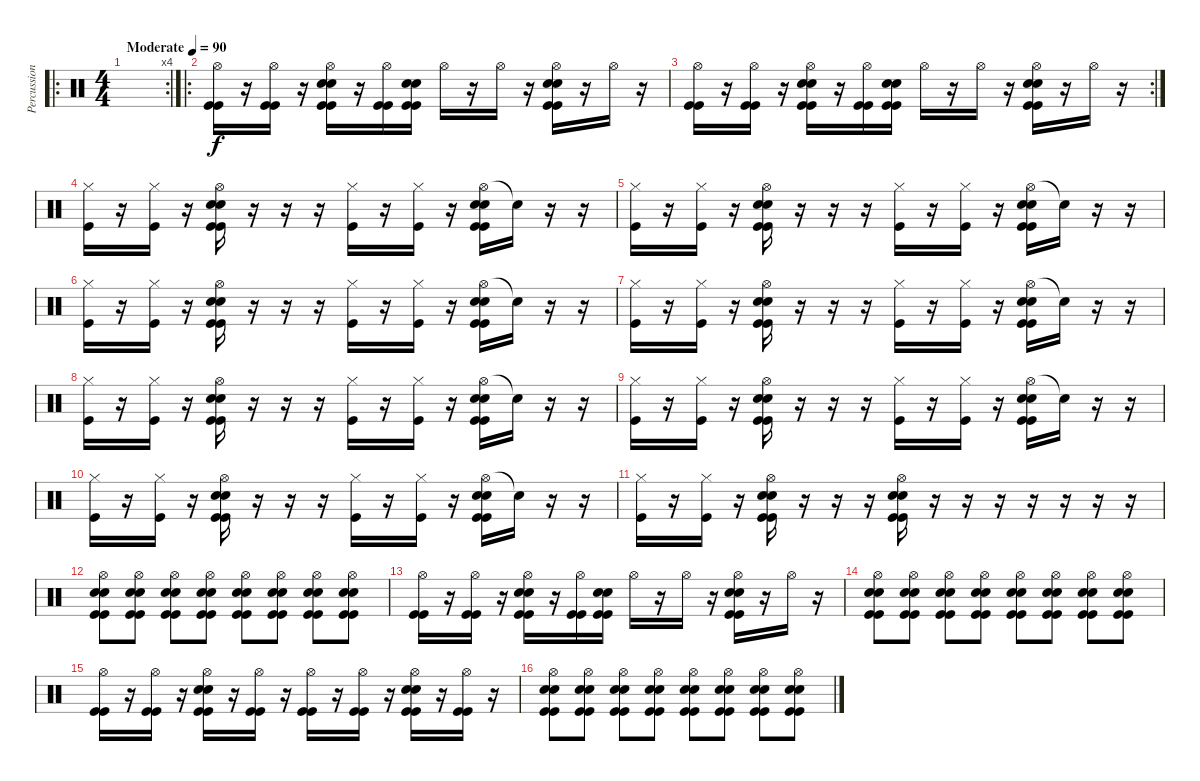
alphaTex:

\track ("Percussion" "Percussion") {instrument percussion}
\staff {score}
\articulation defaults
\ro
\rc 4
\ts (4 4)
\tempo (90 "Moderate")
\clef neutral
\ks c
|
\ro
("Hi-Hat (open)" "Kick (hit)" "Kick (hit)").16 r.16 ("Hi-Hat (open)" "Kick (hit)" "Kick (hit)").16 r.16 ("Hi-Hat (open)" "Kick (hit)" "Kick (hit)" "Electric Snare (hit)" "Electric Snare (hit)").16 r.16 ("Hi-Hat (open)" "Kick (hit)" "Kick (hit)").16 ("Kick (hit)" "Kick (hit)" "Electric Snare (hit)" "Electric Snare (hit)").16 "Hi-Hat (open)".16 r.16 "Hi-Hat (open)".16 r.16 ("Hi-Hat (open)" "Kick (hit)" "Kick (hit)" "Electric Snare (hit)" "Electric Snare (hit)").16 r.16 "Hi-Hat (open)".16 r.16 |
\rc 2
("Hi-Hat (open)" "Kick (hit)" "Kick (hit)").16 r.16 ("Hi-Hat (open)" "Kick (hit)" "Kick (hit)").16 r.16 ("Hi-Hat (open)" "Kick (hit)" "Kick (hit)" "Electric Snare (hit)" "Electric Snare (hit)").16 r.16 ("Hi-Hat (open)" "Kick (hit)" "Kick (hit)").16 ("Kick (hit)" "Kick (hit)" "Electric Snare (hit)" "Electric Snare (hit)").16 "Hi-Hat (open)".16 r.16 "Hi-Hat (open)".16 r.16 ("Hi-Hat (open)" "Kick (hit)" "Kick (hit)" "Electric Snare (hit)" "Electric Snare (hit)").16 r.16 "Hi-Hat (open)".16 r.16 |
("Hi-Hat (closed)" "Kick (hit)").16 r.16 ("Hi-Hat (closed)" "Kick (hit)").16 r.16 ("Hi-Hat (open)" "Kick (hit)" "Kick (hit)" "Electric Snare (hit)" "Electric Snare (hit)").16 r.16 r.16 r.16 ("Hi-Hat (closed)" "Kick (hit)").16 r.16 ("Hi-Hat (closed)" "Kick (hit)").16 r.16 ("Hi-Hat (open)" "Kick (hit)" "Kick (hit)" "Electric Snare (hit)" "Electric Snare (hit)").16 "Snare (hit)"{t}.16 r.16 r.16 |
("Hi-Hat (closed)" "Kick (hit)").16 r.16 ("Hi-Hat (closed)" "Kick (hit)").16 r.16 ("Hi-Hat (open)" "Kick (hit)" "Kick (hit)" "Electric Snare (hit)" "Electric Snare (hit)").16 r.16 r.16 r.16 ("Hi-Hat (closed)" "Kick (hit)").16 r.16 ("Hi-Hat (closed)" "Kick (hit)").16 r.16 ("Hi-Hat (open)" "Kick (hit)" "Kick (hit)" "Electric Snare (hit)" "Electric Snare (hit)").16 "Snare (hit)"{t}.16 r.16 r.16 |
("Hi-Hat (closed)" "Kick (hit)").16 r.16 ("Hi-Hat (closed)" "Kick (hit)").16 r.16 ("Hi-Hat (open)" "Kick (hit)" "Kick (hit)" "Electric Snare (hit)" "Electric Snare (hit)").16 r.16 r.16 r.16 ("Hi-Hat (closed)" "Kick (hit)").16 r.16 ("Hi-Hat (closed)" "Kick (hit)").16 r.16 ("Hi-Hat (open)" "Kick (hit)" "Kick (hit)" "Electric Snare (hit)" "Electric Snare (hit)").16 "Snare (hit)"{t}.16 r.16 r.16 |
("Hi-Hat (closed)" "Kick (hit)").16 r.16 ("Hi-Hat (closed)" "Kick (hit)").16 r.16 ("Hi-Hat (open)" "Kick (hit)" "Kick (hit)" "Electric Snare (hit)" "Electric Snare (hit)").16 r.16 r.16 r.16 ("Hi-Hat (closed)" "Kick (hit)").16 r.16 ("Hi-Hat (closed)" "Kick (hit)").16 r.16 ("Hi-Hat (open)" "Kick (hit)" "Kick (hit)" "Electric Snare (hit)" "Electric Snare (hit)").16 "Snare (hit)"{t}.16 r.16 r.16 |
("Hi-Hat (closed)" "Kick (hit)").16 r.16 ("Hi-Hat (closed)" "Kick (hit)").16 r.16 ("Hi-Hat (open)" "Kick (hit)" "Kick (hit)" "Electric Snare (hit)" "Electric Snare (hit)").16 r.16 r.16 r.16 ("Hi-Hat (closed)" "Kick (hit)").16 r.16 ("Hi-Hat (closed)" "Kick (hit)").16 r.16 ("Hi-Hat (open)" "Kick (hit)" "Kick (hit)" "Electric Snare (hit)" "Electric Snare (hit)").16 "Snare (hit)"{t}.16 r.16 r.16 |
("Hi-Hat (closed)" "Kick (hit)").16 r.16 ("Hi-Hat (closed)" "Kick (hit)").16 r.16 ("Hi-Hat (open)" "Kick (hit)" "Kick (hit)" "Electric Snare (hit)" "Electric Snare (hit)").16 r.16 r.16 r.16 ("Hi-Hat (closed)" "Kick (hit)").16 r.16 ("Hi-Hat (closed)" "Kick (hit)").16 r.16 ("Hi-Hat (open)" "Kick (hit)" "Kick (hit)" "Electric Snare (hit)" "Electric Snare (hit)").16 "Snare (hit)"{t}.16 r.16 r.16 |
("Hi-Hat (closed)" "Kick (hit)").16 r.16 ("Hi-Hat (closed)" "Kick (hit)").16 r.16 ("Hi-Hat (open)" "Kick (hit)" "Kick (hit)" "Electric Snare (hit)" "Electric Snare (hit)").16 r.16 r.16 r.16 ("Hi-Hat (closed)" "Kick (hit)").16 r.16 ("Hi-Hat (closed)" "Kick (hit)").16 r.16 ("Hi-Hat (open)" "Kick (hit)" "Kick (hit)" "Electric Snare (hit)" "Electric Snare (hit)").16 "Snare (hit)"{t}.16 r.16 r.16 |
("Hi-Hat (closed)" "Kick (hit)").16 r.16 ("Hi-Hat (closed)" "Kick (hit)").16 r.16 ("Hi-Hat (open)" "Kick (hit)" "Kick (hit)" "Electric Snare (hit)" "Electric Snare (hit)").16 r.16 r.16 r.16 ("Hi-Hat (open)" "Kick (hit)" "Kick (hit)" "Electric Snare (hit)" "Electric Snare (hit)").16 r.16 r.16 r.16 r.16 r.16 r.16 r.16 |
("Hi-Hat (open)" "Kick (hit)" "Kick (hit)" "Electric Snare (hit)" "Electric Snare (hit)").8 ("Hi-Hat (open)" "Kick (hit)" "Kick (hit)" "Electric Snare (hit)" "Electric Snare (hit)").8 ("Hi-Hat (open)" "Kick (hit)" "Kick (hit)" "Electric Snare (hit)" "Electric Snare (hit)").8 ("Hi-Hat (open)" "Kick (hit)" "Kick (hit)" "Electric Snare (hit)" "Electric Snare (hit)").8 ("Hi-Hat (open)" "Kick (hit)" "Kick (hit)" "Electric Snare (hit)" "Electric Snare (hit)").8 ("Hi-Hat (open)" "Kick (hit)" "Kick (hit)" "Electric Snare (hit)" "Electric Snare (hit)").8 ("Hi-Hat (open)" "Kick (hit)" "Kick (hit)" "Electric Snare (hit)" "Electric Snare (hit)").8 ("Hi-Hat (open)" "Kick (hit)" "Kick (hit)" "Electric Snare (hit)" "Electric Snare (hit)").8 |
("Hi-Hat (open)" "Kick (hit)" "Kick (hit)").16 r.16 ("Hi-Hat (open)" "Kick (hit)" "Kick (hit)").16 r.16 ("Hi-Hat (open)" "Kick (hit)" "Kick (hit)" "Electric Snare (hit)" "Electric Snare (hit)").16 r.16 ("Hi-Hat (open)" "Kick (hit)" "Kick (hit)").16 ("Kick (hit)" "Kick (hit)" "Electric Snare (hit)" "Electric Snare (hit)").16 "Hi-Hat (open)".16 r.16 "Hi-Hat (open)".16 r.16 ("Hi-Hat (open)" "Kick (hit)" "Kick (hit)" "Electric Snare (hit)" "Electric Snare (hit)").16 r.16 "Hi-Hat (open)".16 r.16 |
("Hi-Hat (open)" "Kick (hit)" "Kick (hit)" "Electric Snare (hit)" "Electric Snare (hit)").8 ("Hi-Hat (open)" "Kick (hit)" "Kick (hit)" "Electric Snare (hit)" "Electric Snare (hit)").8 ("Hi-Hat (open)" "Kick (hit)" "Kick (hit)" "Electric Snare (hit)" "Electric Snare (hit)").8 ("Hi-Hat (open)" "Kick (hit)" "Kick (hit)" "Electric Snare (hit)" "Electric Snare (hit)").8 ("Hi-Hat (open)" "Kick (hit)" "Kick (hit)" "Electric Snare (hit)" "Electric Snare (hit)").8 ("Hi-Hat (open)" "Kick (hit)" "Kick (hit)" "Electric Snare (hit)" "Electric Snare (hit)").8 ("Hi-Hat (open)" "Kick (hit)" "Kick (hit)" "Electric Snare (hit)" "Electric Snare (hit)").8 ("Hi-Hat (open)" "Kick (hit)" "Kick (hit)" "Electric Snare (hit)" "Electric Snare (hit)").8 |
("Hi-Hat (open)" "Kick (hit)" "Kick (hit)").16 r.16 ("Hi-Hat (open)" "Kick (hit)" "Kick (hit)").16 r.16 ("Hi-Hat (open)" "Kick (hit)" "Kick (hit)" "Electric Snare (hit)" "Electric Snare (hit)").16 r.16 ("Hi-Hat (open)" "Kick (hit)" "Kick (hit)").16 r.16 ("Hi-Hat (open)" "Kick (hit)" "Kick (hit)").16 r.16 ("Hi-Hat (open)" "Kick (hit)" "Kick (hit)").16 r.16 ("Hi-Hat (open)" "Kick (hit)" "Kick (hit)" "Electric Snare (hit)" "Electric Snare (hit)").16 r.16 ("Hi-Hat (open)" "Kick (hit)" "Kick (hit)").16 r.16 |
("Hi-Hat (open)" "Kick (hit)" "Kick (hit)" "Electric Snare (hit)" "Electric Snare (hit)").8 ("Hi-Hat (open)" "Kick (hit)" "Kick (hit)" "Electric Snare (hit)" "Electric Snare (hit)").8 ("Hi-Hat (open)" "Kick (hit)" "Kick (hit)" "Electric Snare (hit)" "Electric Snare (hit)").8 ("Hi-Hat (open)" "Kick (hit)" "Kick (hit)" "Electric Snare (hit)" "Electric Snare (hit)").8 ("Hi-Hat (open)" "Kick (hit)" "Kick (hit)" "Electric Snare (hit)" "Electric Snare (hit)").8 ("Hi-Hat (open)" "Kick (hit)" "Kick (hit)" "Electric Snare (hit)" "Electric Snare (hit)").8 ("Hi-Hat (open)" "Kick (hit)" "Kick (hit)" "Electric Snare (hit)" "Electric Snare (hit)").8 ("Hi-Hat (open)" "Kick (hit)" "Kick (hit)" "Electric Snare (hit)" "Electric Snare (hit)").8
